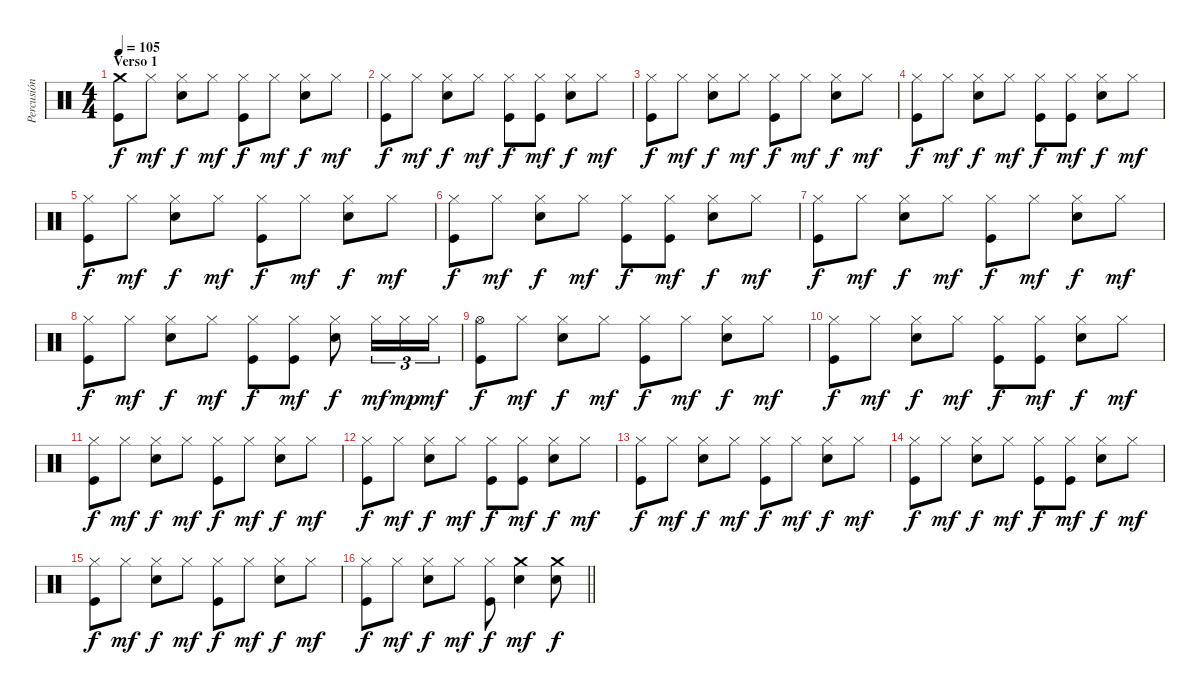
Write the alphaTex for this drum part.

\track ("Percusión" "Percusión") {instrument percussion}
\staff {score}
\articulation defaults
\ts (4 4)
\section ("" "Verso 1")
\tempo 105
\clef neutral
\ks c
("Crash medium (hit)" "Kick (hit)").8{dy f} "Hi-Hat (closed)".8{dy mf} ("Hi-Hat (closed)" "Snare (hit) 2").8{dy f} "Hi-Hat (closed)".8{dy mf} ("Hi-Hat (closed)" "Kick (hit)").8{dy f} "Hi-Hat (closed)".8{dy mf} ("Hi-Hat (closed)" "Snare (hit) 2").8{dy f} "Hi-Hat (closed)".8{dy mf} |
("Hi-Hat (closed)" "Kick (hit)").8{dy f} "Hi-Hat (closed)".8{dy mf} ("Hi-Hat (closed)" "Snare (hit) 2").8{dy f} "Hi-Hat (closed)".8{dy mf} ("Hi-Hat (closed)" "Kick (hit)").8{dy f} ("Hi-Hat (closed)" "Kick (hit)").8{dy mf} ("Hi-Hat (closed)" "Snare (hit) 2").8{dy f} "Hi-Hat (closed)".8{dy mf} |
("Hi-Hat (closed)" "Kick (hit)").8{dy f} "Hi-Hat (closed)".8{dy mf} ("Hi-Hat (closed)" "Snare (hit) 2").8{dy f} "Hi-Hat (closed)".8{dy mf} ("Hi-Hat (closed)" "Kick (hit)").8{dy f} "Hi-Hat (closed)".8{dy mf} ("Hi-Hat (closed)" "Snare (hit) 2").8{dy f} "Hi-Hat (closed)".8{dy mf} |
("Hi-Hat (closed)" "Kick (hit)").8{dy f} "Hi-Hat (closed)".8{dy mf} ("Hi-Hat (closed)" "Snare (hit) 2").8{dy f} "Hi-Hat (closed)".8{dy mf} ("Hi-Hat (closed)" "Kick (hit)").8{dy f} ("Hi-Hat (closed)" "Kick (hit)").8{dy mf} ("Hi-Hat (closed)" "Snare (hit) 2").8{dy f} "Hi-Hat (closed)".8{dy mf} |
("Hi-Hat (closed)" "Kick (hit)").8{dy f} "Hi-Hat (closed)".8{dy mf} ("Hi-Hat (closed)" "Snare (hit) 2").8{dy f} "Hi-Hat (closed)".8{dy mf} ("Hi-Hat (closed)" "Kick (hit)").8{dy f} "Hi-Hat (closed)".8{dy mf} ("Hi-Hat (closed)" "Snare (hit) 2").8{dy f} "Hi-Hat (closed)".8{dy mf} |
("Hi-Hat (closed)" "Kick (hit)").8{dy f} "Hi-Hat (closed)".8{dy mf} ("Hi-Hat (closed)" "Snare (hit) 2").8{dy f} "Hi-Hat (closed)".8{dy mf} ("Hi-Hat (closed)" "Kick (hit)").8{dy f} ("Hi-Hat (closed)" "Kick (hit)").8{dy mf} ("Hi-Hat (closed)" "Snare (hit) 2").8{dy f} "Hi-Hat (closed)".8{dy mf} |
("Hi-Hat (closed)" "Kick (hit)").8{dy f} "Hi-Hat (closed)".8{dy mf} ("Hi-Hat (closed)" "Snare (hit) 2").8{dy f} "Hi-Hat (closed)".8{dy mf} ("Hi-Hat (closed)" "Kick (hit)").8{dy f} "Hi-Hat (closed)".8{dy mf} ("Hi-Hat (closed)" "Snare (hit) 2").8{dy f} "Hi-Hat (closed)".8{dy mf} |
("Hi-Hat (closed)" "Kick (hit)").8{dy f} "Hi-Hat (closed)".8{dy mf} ("Hi-Hat (closed)" "Snare (hit) 2").8{dy f} "Hi-Hat (closed)".8{dy mf} ("Hi-Hat (closed)" "Kick (hit)").8{dy f} ("Hi-Hat (closed)" "Kick (hit)").8{dy mf} ("Hi-Hat (closed)" "Snare (hit) 2").8{dy f} "Hi-Hat (closed)".16{tu (3 2) dy mf} "Hi-Hat (closed)".16{tu (3 2) dy mp} "Hi-Hat (closed)".16{tu (3 2) dy mf} |
("Hi-Hat (open)" "Kick (hit)").8{dy f} "Hi-Hat (closed)".8{dy mf} ("Hi-Hat (closed)" "Snare (hit) 2").8{dy f} "Hi-Hat (closed)".8{dy mf} ("Hi-Hat (closed)" "Kick (hit)").8{dy f} "Hi-Hat (closed)".8{dy mf} ("Hi-Hat (closed)" "Snare (hit) 2").8{dy f} "Hi-Hat (closed)".8{dy mf} |
("Hi-Hat (closed)" "Kick (hit)").8{dy f} "Hi-Hat (closed)".8{dy mf} ("Hi-Hat (closed)" "Snare (hit) 2").8{dy f} "Hi-Hat (closed)".8{dy mf} ("Hi-Hat (closed)" "Kick (hit)").8{dy f} ("Hi-Hat (closed)" "Kick (hit)").8{dy mf} ("Hi-Hat (closed)" "Snare (hit) 2").8{dy f} "Hi-Hat (closed)".8{dy mf} |
("Hi-Hat (closed)" "Kick (hit)").8{dy f} "Hi-Hat (closed)".8{dy mf} ("Hi-Hat (closed)" "Snare (hit) 2").8{dy f} "Hi-Hat (closed)".8{dy mf} ("Hi-Hat (closed)" "Kick (hit)").8{dy f} "Hi-Hat (closed)".8{dy mf} ("Hi-Hat (closed)" "Snare (hit) 2").8{dy f} "Hi-Hat (closed)".8{dy mf} |
("Hi-Hat (closed)" "Kick (hit)").8{dy f} "Hi-Hat (closed)".8{dy mf} ("Hi-Hat (closed)" "Snare (hit) 2").8{dy f} "Hi-Hat (closed)".8{dy mf} ("Hi-Hat (closed)" "Kick (hit)").8{dy f} ("Hi-Hat (closed)" "Kick (hit)").8{dy mf} ("Hi-Hat (closed)" "Snare (hit) 2").8{dy f} "Hi-Hat (closed)".8{dy mf} |
("Hi-Hat (closed)" "Kick (hit)").8{dy f} "Hi-Hat (closed)".8{dy mf} ("Hi-Hat (closed)" "Snare (hit) 2").8{dy f} "Hi-Hat (closed)".8{dy mf} ("Hi-Hat (closed)" "Kick (hit)").8{dy f} "Hi-Hat (closed)".8{dy mf} ("Hi-Hat (closed)" "Snare (hit) 2").8{dy f} "Hi-Hat (closed)".8{dy mf} |
("Hi-Hat (closed)" "Kick (hit)").8{dy f} "Hi-Hat (closed)".8{dy mf} ("Hi-Hat (closed)" "Snare (hit) 2").8{dy f} "Hi-Hat (closed)".8{dy mf} ("Hi-Hat (closed)" "Kick (hit)").8{dy f} ("Hi-Hat (closed)" "Kick (hit)").8{dy mf} ("Hi-Hat (closed)" "Snare (hit) 2").8{dy f} "Hi-Hat (closed)".8{dy mf} |
("Hi-Hat (closed)" "Kick (hit)").8{dy f} "Hi-Hat (closed)".8{dy mf} ("Hi-Hat (closed)" "Snare (hit) 2").8{dy f} "Hi-Hat (closed)".8{dy mf} ("Hi-Hat (closed)" "Kick (hit)").8{dy f} "Hi-Hat (closed)".8{dy mf} ("Hi-Hat (closed)" "Snare (hit) 2").8{dy f} "Hi-Hat (closed)".8{dy mf} |
\barLineRight lightlight
("Hi-Hat (closed)" "Kick (hit)").8{dy f} "Hi-Hat (closed)".8{dy mf} ("Hi-Hat (closed)" "Snare (hit) 2").8{dy f} "Hi-Hat (closed)".8{dy mf} ("Hi-Hat (closed)" "Kick (hit)").8{dy f} ("Crash medium (hit)" "Snare (hit) 2").4{dy mf} ("Crash medium (hit)" "Snare (hit) 2").8{dy f}
